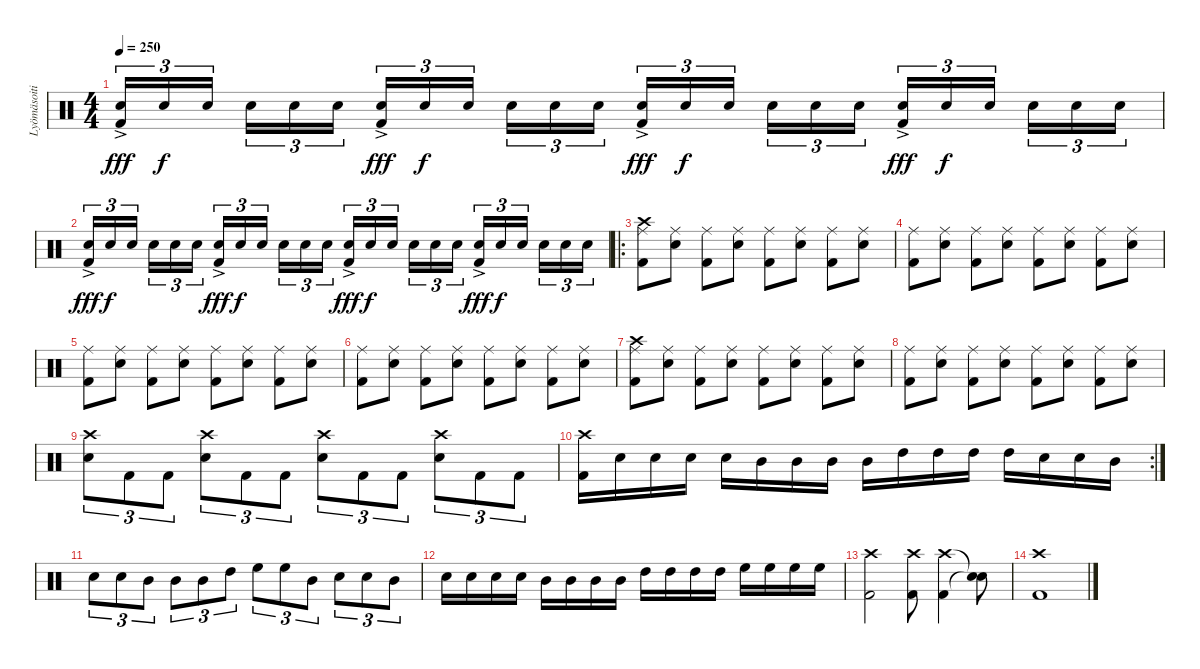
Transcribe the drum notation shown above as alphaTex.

\track ("Lyömäsoitin" "Lyömäsoiti") {instrument percussion}
\staff {score}
\articulation defaults
\ts (4 4)
\tempo 250
\clef neutral
\ks c
("Kick (hit) 2" "Electric Snare (hit)"{ac}).16{tu (3 2) dy fff} "Electric Snare (hit)".16{tu (3 2) dy f} "Electric Snare (hit)".16{tu (3 2)} "Electric Snare (hit)".16{tu (3 2)} "Electric Snare (hit)".16{tu (3 2)} "Electric Snare (hit)".16{tu (3 2)} ("Kick (hit) 2" "Electric Snare (hit)"{ac}).16{tu (3 2) dy fff} "Electric Snare (hit)".16{tu (3 2) dy f} "Electric Snare (hit)".16{tu (3 2)} "Electric Snare (hit)".16{tu (3 2)} "Electric Snare (hit)".16{tu (3 2)} "Electric Snare (hit)".16{tu (3 2)} ("Kick (hit) 2" "Electric Snare (hit)"{ac}).16{tu (3 2) dy fff} "Electric Snare (hit)".16{tu (3 2) dy f} "Electric Snare (hit)".16{tu (3 2)} "Electric Snare (hit)".16{tu (3 2)} "Electric Snare (hit)".16{tu (3 2)} "Electric Snare (hit)".16{tu (3 2)} ("Kick (hit) 2" "Electric Snare (hit)"{ac}).16{tu (3 2) dy fff} "Electric Snare (hit)".16{tu (3 2) dy f} "Electric Snare (hit)".16{tu (3 2)} "Electric Snare (hit)".16{tu (3 2)} "Electric Snare (hit)".16{tu (3 2)} "Electric Snare (hit)".16{tu (3 2)} |
("Kick (hit) 2" "Electric Snare (hit)"{ac}).16{tu (3 2) dy fff} "Electric Snare (hit)".16{tu (3 2) dy f} "Electric Snare (hit)".16{tu (3 2)} "Electric Snare (hit)".16{tu (3 2)} "Electric Snare (hit)".16{tu (3 2)} "Electric Snare (hit)".16{tu (3 2)} ("Kick (hit) 2" "Electric Snare (hit)"{ac}).16{tu (3 2) dy fff} "Electric Snare (hit)".16{tu (3 2) dy f} "Electric Snare (hit)".16{tu (3 2)} "Electric Snare (hit)".16{tu (3 2)} "Electric Snare (hit)".16{tu (3 2)} "Electric Snare (hit)".16{tu (3 2)} ("Kick (hit) 2" "Electric Snare (hit)"{ac}).16{tu (3 2) dy fff} "Electric Snare (hit)".16{tu (3 2) dy f} "Electric Snare (hit)".16{tu (3 2)} "Electric Snare (hit)".16{tu (3 2)} "Electric Snare (hit)".16{tu (3 2)} "Electric Snare (hit)".16{tu (3 2)} ("Kick (hit) 2" "Electric Snare (hit)"{ac}).16{tu (3 2) dy fff} "Electric Snare (hit)".16{tu (3 2) dy f} "Electric Snare (hit)".16{tu (3 2)} "Electric Snare (hit)".16{tu (3 2)} "Electric Snare (hit)".16{tu (3 2)} "Electric Snare (hit)".16{tu (3 2)} |
\ro
("Crash high (hit)" "Ride (middle)" "Kick (hit) 2").8 ("Ride (middle)" "Electric Snare (hit)").8 ("Ride (middle)" "Kick (hit) 2").8 ("Ride (middle)" "Electric Snare (hit)").8 ("Ride (middle)" "Kick (hit) 2").8 ("Ride (middle)" "Electric Snare (hit)").8 ("Ride (middle)" "Kick (hit) 2").8 ("Ride (middle)" "Electric Snare (hit)").8 |
("Ride (middle)" "Kick (hit) 2").8 ("Ride (middle)" "Electric Snare (hit)").8 ("Ride (middle)" "Kick (hit) 2").8 ("Ride (middle)" "Electric Snare (hit)").8 ("Ride (middle)" "Kick (hit) 2").8 ("Ride (middle)" "Electric Snare (hit)").8 ("Ride (middle)" "Kick (hit) 2").8 ("Ride (middle)" "Electric Snare (hit)").8 |
("Ride (middle)" "Kick (hit) 2").8 ("Ride (middle)" "Electric Snare (hit)").8 ("Ride (middle)" "Kick (hit) 2").8 ("Ride (middle)" "Electric Snare (hit)").8 ("Ride (middle)" "Kick (hit) 2").8 ("Ride (middle)" "Electric Snare (hit)").8 ("Ride (middle)" "Kick (hit) 2").8 ("Ride (middle)" "Electric Snare (hit)").8 |
("Ride (middle)" "Kick (hit) 2").8 ("Ride (middle)" "Electric Snare (hit)").8 ("Ride (middle)" "Kick (hit) 2").8 ("Ride (middle)" "Electric Snare (hit)").8 ("Ride (middle)" "Kick (hit) 2").8 ("Ride (middle)" "Electric Snare (hit)").8 ("Ride (middle)" "Kick (hit) 2").8 ("Ride (middle)" "Electric Snare (hit)").8 |
("Crash high (hit)" "Ride (middle)" "Kick (hit) 2").8 ("Ride (middle)" "Electric Snare (hit)").8 ("Ride (middle)" "Kick (hit) 2").8 ("Ride (middle)" "Electric Snare (hit)").8 ("Ride (middle)" "Kick (hit) 2").8 ("Ride (middle)" "Electric Snare (hit)").8 ("Ride (middle)" "Kick (hit) 2").8 ("Ride (middle)" "Electric Snare (hit)").8 |
("Ride (middle)" "Kick (hit) 2").8 ("Ride (middle)" "Electric Snare (hit)").8 ("Ride (middle)" "Kick (hit) 2").8 ("Ride (middle)" "Electric Snare (hit)").8 ("Ride (middle)" "Kick (hit) 2").8 ("Ride (middle)" "Electric Snare (hit)").8 ("Ride (middle)" "Kick (hit) 2").8 ("Ride (middle)" "Electric Snare (hit)").8 |
("Crash high (hit)" "Electric Snare (hit)").8{tu (3 2)} "Kick (hit) 2".8{tu (3 2)} "Kick (hit) 2".8{tu (3 2)} ("Crash high (hit)" "Electric Snare (hit)").8{tu (3 2)} "Kick (hit) 2".8{tu (3 2)} "Kick (hit) 2".8{tu (3 2)} ("Crash high (hit)" "Electric Snare (hit)").8{tu (3 2)} "Kick (hit) 2".8{tu (3 2)} "Kick (hit) 2".8{tu (3 2)} ("Crash high (hit)" "Electric Snare (hit)").8{tu (3 2)} "Kick (hit) 2".8{tu (3 2)} "Kick (hit) 2".8{tu (3 2)} |
\rc 2
("Crash high (hit)" "Kick (hit) 2").16 "Electric Snare (hit)".16 "Electric Snare (hit)".16 "Electric Snare (hit)".16 "Electric Snare (hit)".16 "Mid Tom (hit)".16 "Mid Tom (hit)".16 "Mid Tom (hit)".16 "Mid Tom (hit)".16 "High Tom (hit)".16 "High Tom (hit)".16 "High Tom (hit)".16 "High Tom (hit)".16 "Electric Snare (hit)".16 "Electric Snare (hit)".16 "Mid Tom (hit)".16 |
"Electric Snare (hit)".8{tu (3 2)} "Electric Snare (hit)".8{tu (3 2)} "Mid Tom (hit)".8{tu (3 2)} "Mid Tom (hit)".8{tu (3 2)} "Mid Tom (hit)".8{tu (3 2)} "High Tom (hit)".8{tu (3 2)} "High Floor Tom (hit)".8{tu (3 2)} "High Floor Tom (hit)".8{tu (3 2)} "Mid Tom (hit)".8{tu (3 2)} "Electric Snare (hit)".8{tu (3 2)} "Electric Snare (hit)".8{tu (3 2)} "Mid Tom (hit)".8{tu (3 2)} |
"Electric Snare (hit)".16 "Electric Snare (hit)".16 "Electric Snare (hit)".16 "Electric Snare (hit)".16 "Mid Tom (hit)".16 "Mid Tom (hit)".16 "Mid Tom (hit)".16 "Mid Tom (hit)".16 "High Tom (hit)".16 "High Tom (hit)".16 "High Tom (hit)".16 "High Tom (hit)".16 "High Floor Tom (hit)".16 "High Floor Tom (hit)".16 "High Floor Tom (hit)".16 "High Floor Tom (hit)".16 |
("Crash high (hit)" "Kick (hit) 2").2 ("Crash high (hit)" "Kick (hit) 2").8 ("Crash high (hit)" "Kick (hit) 2").4 ("Snare (hit)"{t} "Snare (hit)"{t}).8 |
("Crash high (hit)" "Kick (hit) 2").1
